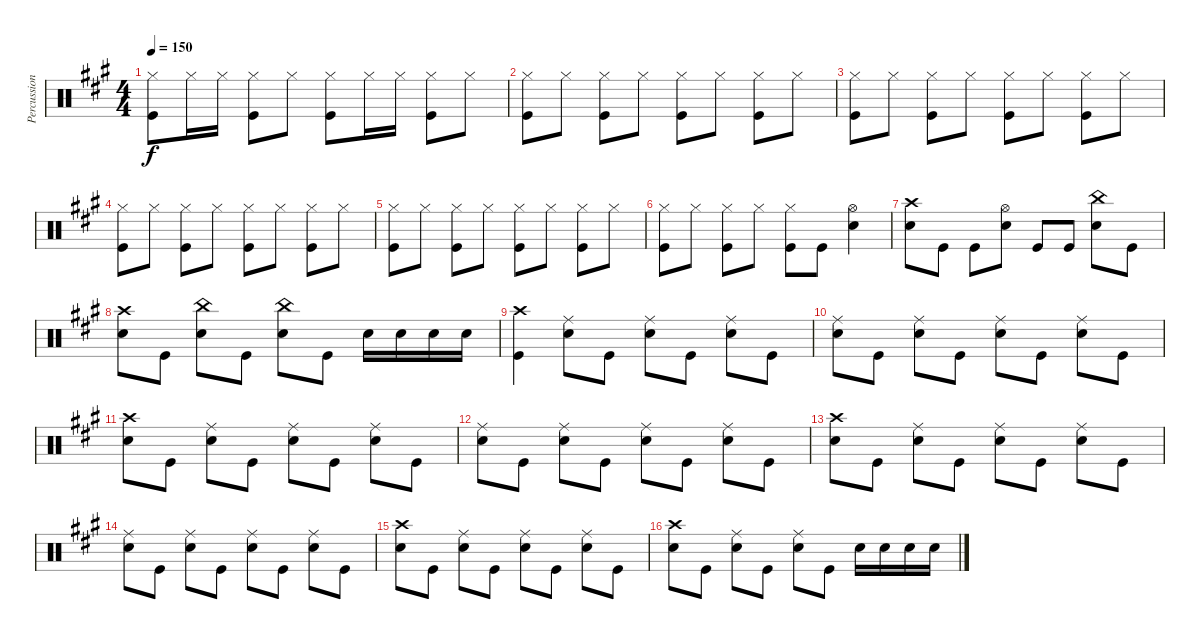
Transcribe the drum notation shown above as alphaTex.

\track ("Percussion" "Percussion") {instrument percussion}
\staff {score}
\articulation defaults
\ts (4 4)
\tempo 150
\clef neutral
\ks a
("Kick (hit)" "Hi-Hat (closed)").8{dy f} "Hi-Hat (closed)".16 "Hi-Hat (closed)".16 ("Kick (hit)" "Hi-Hat (closed)").8 "Hi-Hat (closed)".8 ("Kick (hit)" "Hi-Hat (closed)").8 "Hi-Hat (closed)".16 "Hi-Hat (closed)".16 ("Kick (hit)" "Hi-Hat (closed)").8 "Hi-Hat (closed)".8 |
("Kick (hit)" "Hi-Hat (closed)").8 "Hi-Hat (closed)".8 ("Kick (hit)" "Hi-Hat (closed)").8 "Hi-Hat (closed)".8 ("Kick (hit)" "Hi-Hat (closed)").8 "Hi-Hat (closed)".8 ("Kick (hit)" "Hi-Hat (closed)").8 "Hi-Hat (closed)".8 |
("Kick (hit)" "Hi-Hat (closed)").8 "Hi-Hat (closed)".8 ("Kick (hit)" "Hi-Hat (closed)").8 "Hi-Hat (closed)".8 ("Kick (hit)" "Hi-Hat (closed)").8 "Hi-Hat (closed)".8 ("Kick (hit)" "Hi-Hat (closed)").8 "Hi-Hat (closed)".8 |
("Kick (hit)" "Hi-Hat (closed)").8 "Hi-Hat (closed)".8 ("Kick (hit)" "Hi-Hat (closed)").8 "Hi-Hat (closed)".8 ("Kick (hit)" "Hi-Hat (closed)").8 "Hi-Hat (closed)".8 ("Kick (hit)" "Hi-Hat (closed)").8 "Hi-Hat (closed)".8 |
("Kick (hit)" "Hi-Hat (closed)").8 "Hi-Hat (closed)".8 ("Kick (hit)" "Hi-Hat (closed)").8 "Hi-Hat (closed)".8 ("Kick (hit)" "Hi-Hat (closed)").8 "Hi-Hat (closed)".8 ("Kick (hit)" "Hi-Hat (closed)").8 "Hi-Hat (closed)".8 |
("Kick (hit)" "Hi-Hat (closed)").8 "Hi-Hat (closed)".8 ("Kick (hit)" "Hi-Hat (closed)").8 "Hi-Hat (closed)".8 ("Kick (hit)" "Hi-Hat (closed)").8 "Kick (hit)".8 ("Snare (hit) 2" "Hi-Hat (open)").4 |
("Snare (hit) 2" "Crash high (hit)").8 "Kick (hit)".8 "Kick (hit)".8 ("Snare (hit) 2" "Hi-Hat (open)").8 "Kick (hit)".8 "Kick (hit)".8 ("Snare (hit) 2" "China (hit)").8 "Kick (hit)".8 |
("Snare (hit) 2" "Crash high (hit)").8 "Kick (hit)".8 ("Snare (hit) 2" "China (hit)").8 "Kick (hit)".8 ("Snare (hit) 2" "China (hit)").8 "Kick (hit)".8 "Snare (hit) 2".16 "Snare (hit) 2".16 "Snare (hit) 2".16 "Snare (hit) 2".16 |
("Kick (hit)" "Crash high (hit)").4 ("Snare (hit) 2" "Ride (middle)").8 "Kick (hit)".8 ("Snare (hit) 2" "Ride (middle)").8 "Kick (hit)".8 ("Snare (hit) 2" "Ride (middle)").8 "Kick (hit)".8 |
("Snare (hit) 2" "Ride (middle)").8 "Kick (hit)".8 ("Snare (hit) 2" "Ride (middle)").8 "Kick (hit)".8 ("Snare (hit) 2" "Ride (middle)").8 "Kick (hit)".8 ("Snare (hit) 2" "Ride (middle)").8 "Kick (hit)".8 |
("Snare (hit) 2" "Crash high (hit)").8 "Kick (hit)".8 ("Snare (hit) 2" "Ride (middle)").8 "Kick (hit)".8 ("Snare (hit) 2" "Ride (middle)").8 "Kick (hit)".8 ("Snare (hit) 2" "Ride (middle)").8 "Kick (hit)".8 |
("Snare (hit) 2" "Ride (middle)").8 "Kick (hit)".8 ("Snare (hit) 2" "Ride (middle)").8 "Kick (hit)".8 ("Snare (hit) 2" "Ride (middle)").8 "Kick (hit)".8 ("Snare (hit) 2" "Ride (middle)").8 "Kick (hit)".8 |
("Snare (hit) 2" "Crash high (hit)").8 "Kick (hit)".8 ("Snare (hit) 2" "Ride (middle)").8 "Kick (hit)".8 ("Snare (hit) 2" "Ride (middle)").8 "Kick (hit)".8 ("Snare (hit) 2" "Ride (middle)").8 "Kick (hit)".8 |
("Snare (hit) 2" "Ride (middle)").8 "Kick (hit)".8 ("Snare (hit) 2" "Ride (middle)").8 "Kick (hit)".8 ("Snare (hit) 2" "Ride (middle)").8 "Kick (hit)".8 ("Snare (hit) 2" "Ride (middle)").8 "Kick (hit)".8 |
("Snare (hit) 2" "Crash high (hit)").8 "Kick (hit)".8 ("Snare (hit) 2" "Ride (middle)").8 "Kick (hit)".8 ("Snare (hit) 2" "Ride (middle)").8 "Kick (hit)".8 ("Snare (hit) 2" "Ride (middle)").8 "Kick (hit)".8 |
("Snare (hit) 2" "Crash high (hit)").8 "Kick (hit)".8 ("Snare (hit) 2" "Ride (middle)").8 "Kick (hit)".8 ("Snare (hit) 2" "Ride (middle)").8 "Kick (hit)".8 "Snare (hit) 2".16 "Snare (hit) 2".16 "Snare (hit) 2".16 "Snare (hit) 2".16
